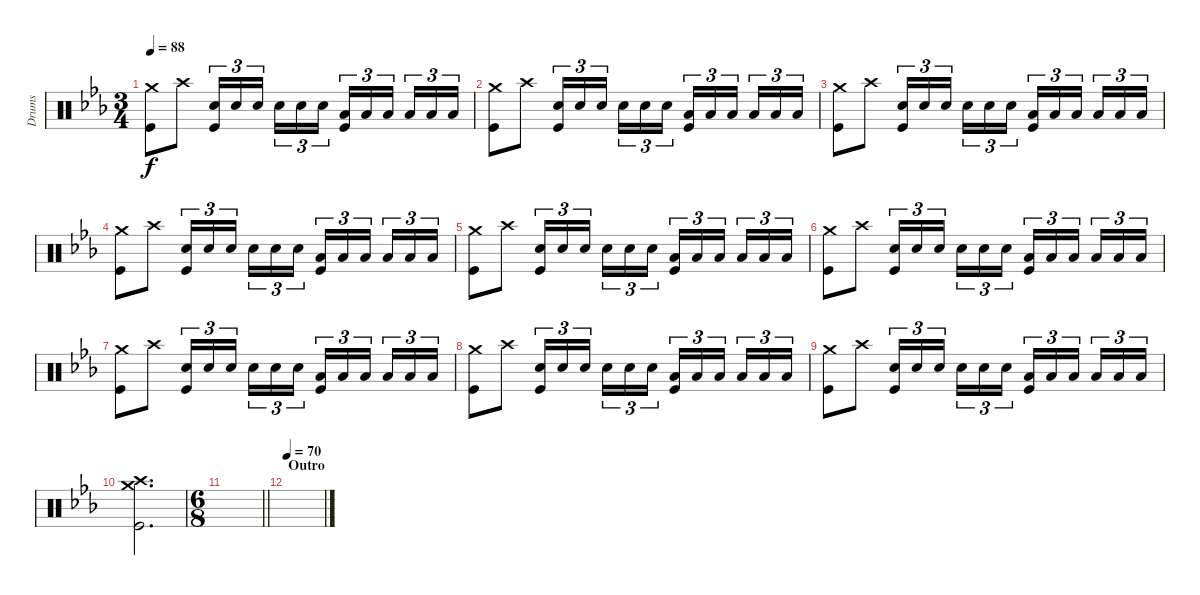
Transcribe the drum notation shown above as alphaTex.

\track ("Drums" "Drums") {instrument percussion}
\staff {score}
\articulation defaults
\ts (3 4)
\tempo 88
\clef neutral
\ks cminor
("Crash medium (hit)" "Kick (hit)").8{dy f} "Crash high (hit)".8 ("Snare (hit) 2" "Kick (hit)").16{tu (3 2)} "Snare (hit) 2".16{tu (3 2)} "Snare (hit) 2".16{tu (3 2) beam splitsecondary} "Snare (hit) 2".16{tu (3 2)} "Snare (hit) 2".16{tu (3 2)} "Snare (hit) 2".16{tu (3 2)} ("Low Tom (hit)" "Kick (hit)").16{tu (3 2)} "Low Tom (hit)".16{tu (3 2)} "Low Tom (hit)".16{tu (3 2) beam splitsecondary} "Low Floor Tom (hit)".16{tu (3 2)} "Low Floor Tom (hit)".16{tu (3 2)} "Low Floor Tom (hit)".16{tu (3 2)} |
("Crash medium (hit)" "Kick (hit)").8 "Crash high (hit)".8 ("Snare (hit) 2" "Kick (hit)").16{tu (3 2)} "Snare (hit) 2".16{tu (3 2)} "Snare (hit) 2".16{tu (3 2) beam splitsecondary} "Snare (hit) 2".16{tu (3 2)} "Snare (hit) 2".16{tu (3 2)} "Snare (hit) 2".16{tu (3 2)} ("Low Tom (hit)" "Kick (hit)").16{tu (3 2)} "Low Tom (hit)".16{tu (3 2)} "Low Tom (hit)".16{tu (3 2) beam splitsecondary} "Low Floor Tom (hit)".16{tu (3 2)} "Low Floor Tom (hit)".16{tu (3 2)} "Low Floor Tom (hit)".16{tu (3 2)} |
("Crash medium (hit)" "Kick (hit)").8 "Crash high (hit)".8 ("Snare (hit) 2" "Kick (hit)").16{tu (3 2)} "Snare (hit) 2".16{tu (3 2)} "Snare (hit) 2".16{tu (3 2) beam splitsecondary} "Snare (hit) 2".16{tu (3 2)} "Snare (hit) 2".16{tu (3 2)} "Snare (hit) 2".16{tu (3 2)} ("Low Tom (hit)" "Kick (hit)").16{tu (3 2)} "Low Tom (hit)".16{tu (3 2)} "Low Tom (hit)".16{tu (3 2) beam splitsecondary} "Low Floor Tom (hit)".16{tu (3 2)} "Low Floor Tom (hit)".16{tu (3 2)} "Low Floor Tom (hit)".16{tu (3 2)} |
("Crash medium (hit)" "Kick (hit)").8 "Crash high (hit)".8 ("Snare (hit) 2" "Kick (hit)").16{tu (3 2)} "Snare (hit) 2".16{tu (3 2)} "Snare (hit) 2".16{tu (3 2) beam splitsecondary} "Snare (hit) 2".16{tu (3 2)} "Snare (hit) 2".16{tu (3 2)} "Snare (hit) 2".16{tu (3 2)} ("Low Tom (hit)" "Kick (hit)").16{tu (3 2)} "Low Tom (hit)".16{tu (3 2)} "Low Tom (hit)".16{tu (3 2) beam splitsecondary} "Low Floor Tom (hit)".16{tu (3 2)} "Low Floor Tom (hit)".16{tu (3 2)} "Low Floor Tom (hit)".16{tu (3 2)} |
("Crash medium (hit)" "Kick (hit)").8 "Crash high (hit)".8 ("Snare (hit) 2" "Kick (hit)").16{tu (3 2)} "Snare (hit) 2".16{tu (3 2)} "Snare (hit) 2".16{tu (3 2) beam splitsecondary} "Snare (hit) 2".16{tu (3 2)} "Snare (hit) 2".16{tu (3 2)} "Snare (hit) 2".16{tu (3 2)} ("Low Tom (hit)" "Kick (hit)").16{tu (3 2)} "Low Tom (hit)".16{tu (3 2)} "Low Tom (hit)".16{tu (3 2) beam splitsecondary} "Low Floor Tom (hit)".16{tu (3 2)} "Low Floor Tom (hit)".16{tu (3 2)} "Low Floor Tom (hit)".16{tu (3 2)} |
("Crash medium (hit)" "Kick (hit)").8 "Crash high (hit)".8 ("Snare (hit) 2" "Kick (hit)").16{tu (3 2)} "Snare (hit) 2".16{tu (3 2)} "Snare (hit) 2".16{tu (3 2) beam splitsecondary} "Snare (hit) 2".16{tu (3 2)} "Snare (hit) 2".16{tu (3 2)} "Snare (hit) 2".16{tu (3 2)} ("Low Tom (hit)" "Kick (hit)").16{tu (3 2)} "Low Tom (hit)".16{tu (3 2)} "Low Tom (hit)".16{tu (3 2) beam splitsecondary} "Low Floor Tom (hit)".16{tu (3 2)} "Low Floor Tom (hit)".16{tu (3 2)} "Low Floor Tom (hit)".16{tu (3 2)} |
("Crash medium (hit)" "Kick (hit)").8 "Crash high (hit)".8 ("Snare (hit) 2" "Kick (hit)").16{tu (3 2)} "Snare (hit) 2".16{tu (3 2)} "Snare (hit) 2".16{tu (3 2) beam splitsecondary} "Snare (hit) 2".16{tu (3 2)} "Snare (hit) 2".16{tu (3 2)} "Snare (hit) 2".16{tu (3 2)} ("Low Tom (hit)" "Kick (hit)").16{tu (3 2)} "Low Tom (hit)".16{tu (3 2)} "Low Tom (hit)".16{tu (3 2) beam splitsecondary} "Low Floor Tom (hit)".16{tu (3 2)} "Low Floor Tom (hit)".16{tu (3 2)} "Low Floor Tom (hit)".16{tu (3 2)} |
("Crash medium (hit)" "Kick (hit)").8 "Crash high (hit)".8 ("Snare (hit) 2" "Kick (hit)").16{tu (3 2)} "Snare (hit) 2".16{tu (3 2)} "Snare (hit) 2".16{tu (3 2) beam splitsecondary} "Snare (hit) 2".16{tu (3 2)} "Snare (hit) 2".16{tu (3 2)} "Snare (hit) 2".16{tu (3 2)} ("Low Tom (hit)" "Kick (hit)").16{tu (3 2)} "Low Tom (hit)".16{tu (3 2)} "Low Tom (hit)".16{tu (3 2) beam splitsecondary} "Low Floor Tom (hit)".16{tu (3 2)} "Low Floor Tom (hit)".16{tu (3 2)} "Low Floor Tom (hit)".16{tu (3 2)} |
("Crash medium (hit)" "Kick (hit)").8 "Crash high (hit)".8 ("Snare (hit) 2" "Kick (hit)").16{tu (3 2)} "Snare (hit) 2".16{tu (3 2)} "Snare (hit) 2".16{tu (3 2) beam splitsecondary} "Snare (hit) 2".16{tu (3 2)} "Snare (hit) 2".16{tu (3 2)} "Snare (hit) 2".16{tu (3 2)} ("Low Tom (hit)" "Kick (hit)").16{tu (3 2)} "Low Tom (hit)".16{tu (3 2)} "Low Tom (hit)".16{tu (3 2) beam splitsecondary} "Low Floor Tom (hit)".16{tu (3 2)} "Low Floor Tom (hit)".16{tu (3 2)} "Low Floor Tom (hit)".16{tu (3 2)} |
("Crash medium (hit)" "Crash high (hit)" "Kick (hit)").2{d} |
\ts (6 8)
\barLineRight lightlight
|
\section ("" "Outro")
\tempo 70
